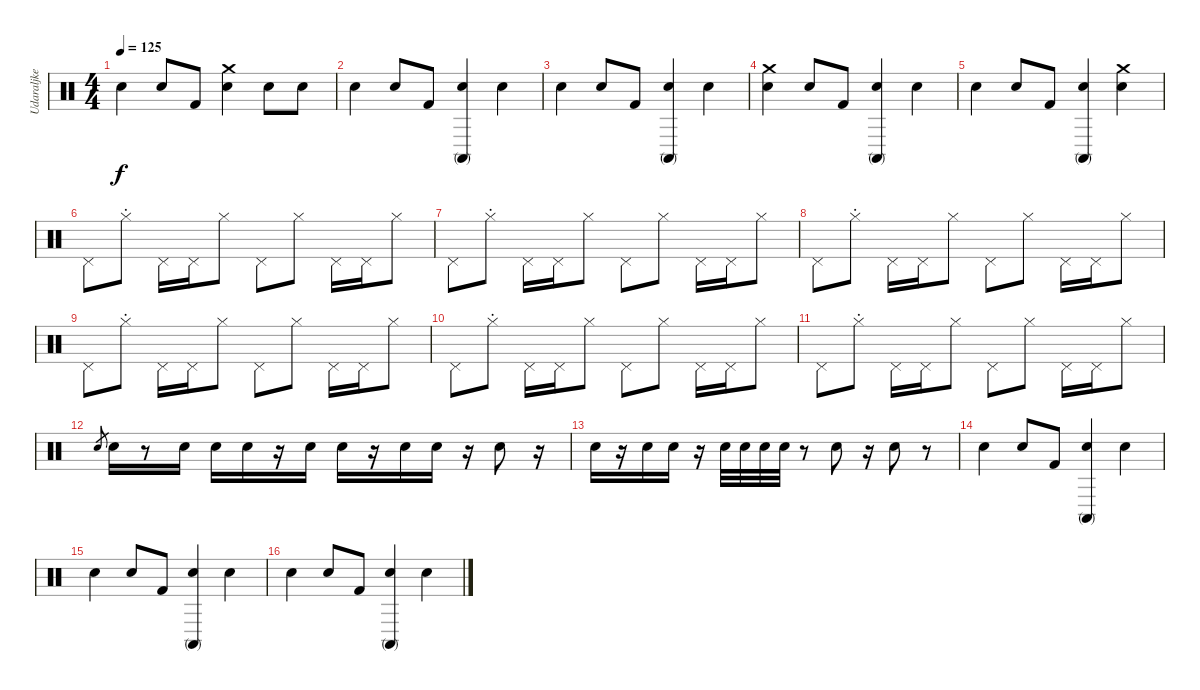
\track ("Udaraljke" "Udaraljke") {instrument percussion}
\staff {score}
\articulation defaults
\ts (4 4)
\tempo 125
\clef neutral
\ks c "Electric Snare (hit)".4{dy f} "Electric Snare (hit)".8 "Kick (hit) 2".8
("Electric Snare (hit)" "Crash medium (hit)").4 "Electric Snare (hit)".8 "Electric Snare (hit)".8 |
"Electric Snare (hit)".4 "Electric Snare (hit)".8 "Kick (hit) 2".8 ("Electric Snare (hit)" "Conga high (mute)").4 "Electric Snare (hit)".4 |
"Electric Snare (hit)".4 "Electric Snare (hit)".8 "Kick (hit) 2".8 ("Electric Snare (hit)" "Conga high (mute)").4 "Electric Snare (hit)".4 |
("Electric Snare (hit)" "Crash medium (hit)").4 "Electric Snare (hit)".8 "Kick (hit) 2".8 ("Electric Snare (hit)" "Conga high (mute)").4 "Electric Snare (hit)".4 |
"Electric Snare (hit)".4 "Electric Snare (hit)".8 "Kick (hit) 2".8 ("Electric Snare (hit)" "Conga high (mute)").4 ("Electric Snare (hit)" "Crash medium (hit)").4 |
"Pedal Hi-Hat (hit)".8{volume 7} "Hi-Hat (closed)"{st}.8 "Pedal Hi-Hat (hit)".16 "Pedal Hi-Hat (hit)".16 "Hi-Hat (closed)".8 "Pedal Hi-Hat (hit)".8 "Hi-Hat (closed)".8 "Pedal Hi-Hat (hit)".16 "Pedal Hi-Hat (hit)".16 "Hi-Hat (closed)".8 |
"Pedal Hi-Hat (hit)".8 "Hi-Hat (closed)"{st}.8 "Pedal Hi-Hat (hit)".16 "Pedal Hi-Hat (hit)".16 "Hi-Hat (closed)".8 "Pedal Hi-Hat (hit)".8 "Hi-Hat (closed)".8 "Pedal Hi-Hat (hit)".16 "Pedal Hi-Hat (hit)".16 "Hi-Hat (closed)".8 |
"Pedal Hi-Hat (hit)".8 "Hi-Hat (closed)"{st}.8 "Pedal Hi-Hat (hit)".16 "Pedal Hi-Hat (hit)".16 "Hi-Hat (closed)".8 "Pedal Hi-Hat (hit)".8 "Hi-Hat (closed)".8 "Pedal Hi-Hat (hit)".16 "Pedal Hi-Hat (hit)".16 "Hi-Hat (closed)".8 |
"Pedal Hi-Hat (hit)".8 "Hi-Hat (closed)"{st}.8 "Pedal Hi-Hat (hit)".16 "Pedal Hi-Hat (hit)".16 "Hi-Hat (closed)".8 "Pedal Hi-Hat (hit)".8 "Hi-Hat (closed)".8 "Pedal Hi-Hat (hit)".16 "Pedal Hi-Hat (hit)".16 "Hi-Hat (closed)".8 |
"Pedal Hi-Hat (hit)".8 "Hi-Hat (closed)"{st}.8 "Pedal Hi-Hat (hit)".16 "Pedal Hi-Hat (hit)".16 "Hi-Hat (closed)".8 "Pedal Hi-Hat (hit)".8 "Hi-Hat (closed)".8 "Pedal Hi-Hat (hit)".16 "Pedal Hi-Hat (hit)".16 "Hi-Hat (closed)".8 |
"Pedal Hi-Hat (hit)".8 "Hi-Hat (closed)"{st}.8 "Pedal Hi-Hat (hit)".16 "Pedal Hi-Hat (hit)".16 "Hi-Hat (closed)".8 "Pedal Hi-Hat (hit)".8 "Hi-Hat (closed)".8 "Pedal Hi-Hat (hit)".16 "Pedal Hi-Hat (hit)".16 "Hi-Hat (closed)".8 |
"Snare (hit) 2".8{gr} "Electric Snare (hit)".16{volume 16} r.8 "Electric Snare (hit)".16 "Electric Snare (hit)".16 "Electric Snare (hit)".16 r.16 "Electric Snare (hit)".16 "Electric Snare (hit)".16 r.16 "Electric Snare (hit)".16 "Electric Snare (hit)".16 r.16 "Electric Snare (hit)".8 r.16 |
"Electric Snare (hit)".16 r.16 "Electric Snare (hit)".16 "Electric Snare (hit)".16 r.16 "Electric Snare (hit)".32 "Electric Snare (hit)".32 "Electric Snare (hit)".32 "Electric Snare (hit)".32 r.8 "Electric Snare (hit)".8 r.16 "Electric Snare (hit)".8 r.8 |
"Electric Snare (hit)".4 "Electric Snare (hit)".8 "Kick (hit) 2".8 ("Electric Snare (hit)" "Conga high (mute)").4 "Electric Snare (hit)".4 |
"Electric Snare (hit)".4 "Electric Snare (hit)".8 "Kick (hit) 2".8 ("Electric Snare (hit)" "Conga high (mute)").4 "Electric Snare (hit)".4 |
"Electric Snare (hit)".4 "Electric Snare (hit)".8 "Kick (hit) 2".8 ("Electric Snare (hit)" "Conga high (mute)").4 "Electric Snare (hit)".4
